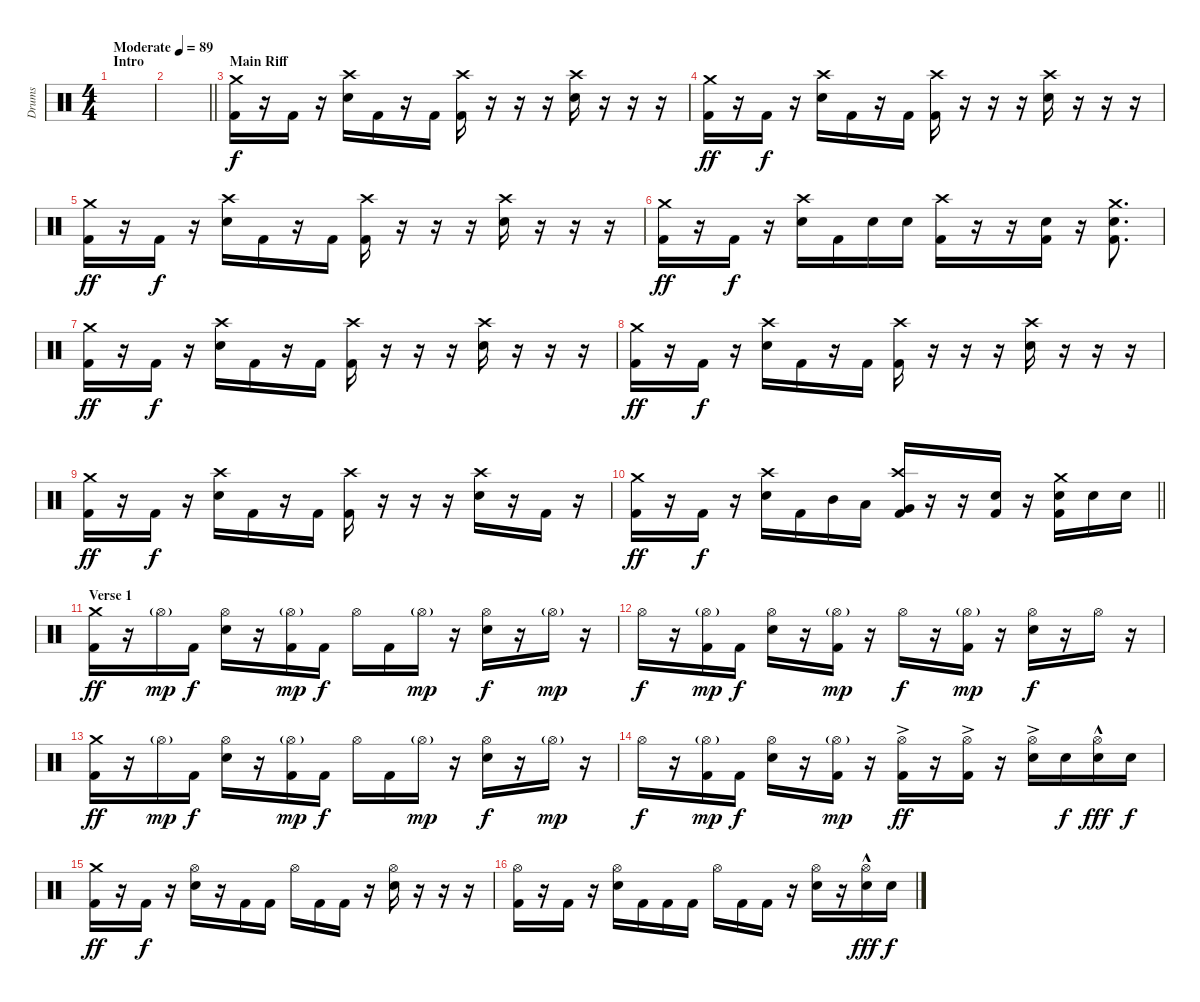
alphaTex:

\track ("Drums" "Drums") {instrument percussion}
\staff {score}
\articulation defaults
\ts (4 4)
\section ("" "Intro")
\tempo (89 "Moderate")
\clef neutral
\ks c
|
\barLineRight lightlight
|
\section ("" "Main Riff")
("Crash medium (hit)" "Kick (hit) 2").16 r.16 "Kick (hit) 2".16{dy f} r.16 ("Crash high (hit)" "Electric Snare (hit)").16 "Kick (hit) 2".16 r.16 "Kick (hit) 2".16 ("Crash high (hit)" "Kick (hit) 2").16 r.16 r.16 r.16 ("Crash high (hit)" "Electric Snare (hit)").16 r.16 r.16 r.16 |
("Crash medium (hit)" "Kick (hit) 2").16{dy ff} r.16 "Kick (hit) 2".16{dy f} r.16 ("Crash high (hit)" "Electric Snare (hit)").16 "Kick (hit) 2".16 r.16 "Kick (hit) 2".16 ("Crash high (hit)" "Kick (hit) 2").16 r.16 r.16 r.16 ("Crash high (hit)" "Electric Snare (hit)").16 r.16 r.16 r.16 |
("Crash medium (hit)" "Kick (hit) 2").16{dy ff} r.16 "Kick (hit) 2".16{dy f} r.16 ("Crash high (hit)" "Electric Snare (hit)").16 "Kick (hit) 2".16 r.16 "Kick (hit) 2".16 ("Crash high (hit)" "Kick (hit) 2").16 r.16 r.16 r.16 ("Crash high (hit)" "Electric Snare (hit)").16 r.16 r.16 r.16 |
("Crash medium (hit)" "Kick (hit) 2").16{dy ff} r.16 "Kick (hit) 2".16{dy f} r.16 ("Crash high (hit)" "Electric Snare (hit)").16 "Kick (hit) 2".16 "Electric Snare (hit)".16 "Electric Snare (hit)".16 ("Crash high (hit)" "Kick (hit) 2").16 r.16 r.16 ("Electric Snare (hit)" "Kick (hit) 2").16 r.16 ("Crash medium (hit)" "Electric Snare (hit)" "Kick (hit) 2").8{d} |
("Crash medium (hit)" "Kick (hit) 2").16{dy ff} r.16 "Kick (hit) 2".16{dy f} r.16 ("Crash high (hit)" "Electric Snare (hit)").16 "Kick (hit) 2".16 r.16 "Kick (hit) 2".16 ("Crash high (hit)" "Kick (hit) 2").16 r.16 r.16 r.16 ("Crash high (hit)" "Electric Snare (hit)").16 r.16 r.16 r.16 |
("Crash medium (hit)" "Kick (hit) 2").16{dy ff} r.16 "Kick (hit) 2".16{dy f} r.16 ("Crash high (hit)" "Electric Snare (hit)").16 "Kick (hit) 2".16 r.16 "Kick (hit) 2".16 ("Crash high (hit)" "Kick (hit) 2").16 r.16 r.16 r.16 ("Crash high (hit)" "Electric Snare (hit)").16 r.16 r.16 r.16 |
("Crash medium (hit)" "Kick (hit) 2").16{dy ff} r.16 "Kick (hit) 2".16{dy f} r.16 ("Crash high (hit)" "Electric Snare (hit)").16 "Kick (hit) 2".16 r.16 "Kick (hit) 2".16 ("Crash high (hit)" "Kick (hit) 2").16 r.16 r.16 r.16 ("Crash high (hit)" "Electric Snare (hit)").16 r.16 "Kick (hit) 2".16 r.16 |
\barLineRight lightlight
("Crash medium (hit)" "Kick (hit) 2").16{dy ff} r.16 "Kick (hit) 2".16{dy f} r.16 ("Crash high (hit)" "Electric Snare (hit)").16 "Kick (hit) 2".16 "Mid Tom (hit)".16 "Low Tom (hit)".16 ("Crash high (hit)" "Very Low Tom (hit)" "Kick (hit) 2").16 r.16 r.16 ("Electric Snare (hit)" "Kick (hit) 2").16 r.16 ("Crash medium (hit)" "Electric Snare (hit)" "Kick (hit) 2").16 "Electric Snare (hit)".16 "Electric Snare (hit)".16 |
\section ("" "Verse 1")
("Crash medium (hit)" "Kick (hit) 2").16{dy ff} r.16 "Hi-Hat (open)"{g}.16{dy mp} "Kick (hit) 2".16{dy f} ("Hi-Hat (open)" "Electric Snare (hit)").16 r.16 ("Hi-Hat (open)"{g} "Kick (hit) 2").16{dy mp} "Kick (hit) 2".16{dy f} "Hi-Hat (open)".16 "Kick (hit) 2".16 "Hi-Hat (open)"{g}.16{dy mp} r.16 ("Hi-Hat (open)" "Electric Snare (hit)").16{dy f} r.16 "Hi-Hat (open)"{g}.16{dy mp} r.16 |
"Hi-Hat (open)".16{dy f} r.16 ("Hi-Hat (open)"{g} "Kick (hit) 2").16{dy mp} "Kick (hit) 2".16{dy f} ("Hi-Hat (open)" "Electric Snare (hit)").16 r.16 ("Hi-Hat (open)"{g} "Kick (hit) 2").16{dy mp} r.16 "Hi-Hat (open)".16{dy f} r.16 ("Hi-Hat (open)"{g} "Kick (hit) 2").16{dy mp} r.16 ("Hi-Hat (open)" "Electric Snare (hit)").16{dy f} r.16 "Hi-Hat (open)".16 r.16 |
("Crash medium (hit)" "Kick (hit) 2").16{dy ff} r.16 "Hi-Hat (open)"{g}.16{dy mp} "Kick (hit) 2".16{dy f} ("Hi-Hat (open)" "Electric Snare (hit)").16 r.16 ("Hi-Hat (open)"{g} "Kick (hit) 2").16{dy mp} "Kick (hit) 2".16{dy f} "Hi-Hat (open)".16 "Kick (hit) 2".16 "Hi-Hat (open)"{g}.16{dy mp} r.16 ("Hi-Hat (open)" "Electric Snare (hit)").16{dy f} r.16 "Hi-Hat (open)"{g}.16{dy mp} r.16 |
"Hi-Hat (open)".16{dy f} r.16 ("Hi-Hat (open)"{g} "Kick (hit) 2").16{dy mp} "Kick (hit) 2".16{dy f} ("Hi-Hat (open)" "Electric Snare (hit)").16 r.16 ("Hi-Hat (open)"{g} "Kick (hit) 2").16{dy mp} r.16 ("Hi-Hat (open)"{ac} "Kick (hit) 2").16{dy ff} r.16 ("Hi-Hat (open)"{ac} "Kick (hit) 2").16 r.16 ("Hi-Hat (open)"{ac} "Electric Snare (hit)").16 "Electric Snare (hit)".16{dy f} ("Hi-Hat (open)"{hac} "Electric Snare (hit)").16{dy fff} "Electric Snare (hit)".16{dy f} |
("Crash medium (hit)" "Kick (hit) 2").16{dy ff} r.16 "Kick (hit) 2".16{dy f} r.16 ("Hi-Hat (open)" "Electric Snare (hit)").16 r.16 "Kick (hit) 2".16 "Kick (hit) 2".16 "Hi-Hat (open)".16 "Kick (hit) 2".16 "Kick (hit) 2".16 r.16 ("Hi-Hat (open)" "Electric Snare (hit)").16 r.16 r.16 r.16 |
("Hi-Hat (open)" "Kick (hit) 2").16 r.16 "Kick (hit) 2".16 r.16 ("Hi-Hat (open)" "Electric Snare (hit)").16 "Kick (hit) 2".16 "Kick (hit) 2".16 "Kick (hit) 2".16 "Hi-Hat (open)".16 "Kick (hit) 2".16 "Kick (hit) 2".16 r.16 ("Hi-Hat (open)" "Electric Snare (hit)").16 r.16 ("Hi-Hat (open)"{hac} "Electric Snare (hit)").16{dy fff} "Electric Snare (hit)".16{dy f}
